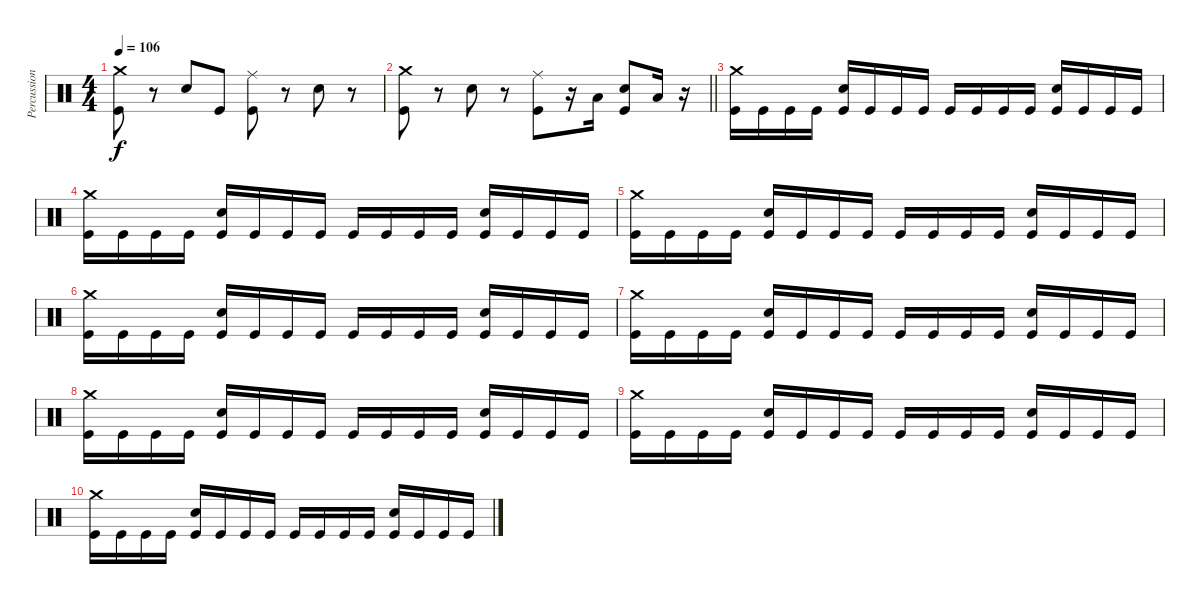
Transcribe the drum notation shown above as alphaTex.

\track ("Percussion" "Percussion") {instrument percussion}
\staff {score}
\articulation defaults
\ts (4 4)
\tempo 106
\clef neutral
\ks c
("Kick (hit)" "Crash medium (hit)").8{dy f} r.8 "Electric Snare (hit)".8 "Kick (hit)".8 ("Kick (hit)" "Ride (middle)").8 r.8 "Electric Snare (hit)".8 r.8 |
\barLineRight lightlight
("Kick (hit)" "Crash medium (hit)").8 r.8 "Electric Snare (hit)".8 r.8 ("Kick (hit)" "Ride (middle)").8 r.16 "Low Tom (hit)".16 ("Kick (hit)" "Electric Snare (hit)").8 "Low Tom (hit)".16 r.16 |
\section ("" "")
("Kick (hit)" "Crash medium (hit)").16 "Kick (hit)".16 "Kick (hit)".16 "Kick (hit)".16 ("Kick (hit)" "Electric Snare (hit)").16 "Kick (hit)".16 "Kick (hit)".16 "Kick (hit)".16 "Kick (hit)".16 "Kick (hit)".16 "Kick (hit)".16 "Kick (hit)".16 ("Kick (hit)" "Electric Snare (hit)").16 "Kick (hit)".16 "Kick (hit)".16 "Kick (hit)".16 |
("Kick (hit)" "Crash medium (hit)").16 "Kick (hit)".16 "Kick (hit)".16 "Kick (hit)".16 ("Kick (hit)" "Electric Snare (hit)").16 "Kick (hit)".16 "Kick (hit)".16 "Kick (hit)".16 "Kick (hit)".16 "Kick (hit)".16 "Kick (hit)".16 "Kick (hit)".16 ("Kick (hit)" "Electric Snare (hit)").16 "Kick (hit)".16 "Kick (hit)".16 "Kick (hit)".16 |
("Kick (hit)" "Crash medium (hit)").16 "Kick (hit)".16 "Kick (hit)".16 "Kick (hit)".16 ("Kick (hit)" "Electric Snare (hit)").16 "Kick (hit)".16 "Kick (hit)".16 "Kick (hit)".16 "Kick (hit)".16 "Kick (hit)".16 "Kick (hit)".16 "Kick (hit)".16 ("Kick (hit)" "Electric Snare (hit)").16 "Kick (hit)".16 "Kick (hit)".16 "Kick (hit)".16 |
("Kick (hit)" "Crash medium (hit)").16 "Kick (hit)".16 "Kick (hit)".16 "Kick (hit)".16 ("Kick (hit)" "Electric Snare (hit)").16 "Kick (hit)".16 "Kick (hit)".16 "Kick (hit)".16 "Kick (hit)".16 "Kick (hit)".16 "Kick (hit)".16 "Kick (hit)".16 ("Kick (hit)" "Electric Snare (hit)").16 "Kick (hit)".16 "Kick (hit)".16 "Kick (hit)".16 |
("Kick (hit)" "Crash medium (hit)").16 "Kick (hit)".16 "Kick (hit)".16 "Kick (hit)".16 ("Kick (hit)" "Electric Snare (hit)").16 "Kick (hit)".16 "Kick (hit)".16 "Kick (hit)".16 "Kick (hit)".16 "Kick (hit)".16 "Kick (hit)".16 "Kick (hit)".16 ("Kick (hit)" "Electric Snare (hit)").16 "Kick (hit)".16 "Kick (hit)".16 "Kick (hit)".16 |
("Kick (hit)" "Crash medium (hit)").16 "Kick (hit)".16 "Kick (hit)".16 "Kick (hit)".16 ("Kick (hit)" "Electric Snare (hit)").16 "Kick (hit)".16 "Kick (hit)".16 "Kick (hit)".16 "Kick (hit)".16 "Kick (hit)".16 "Kick (hit)".16 "Kick (hit)".16 ("Kick (hit)" "Electric Snare (hit)").16 "Kick (hit)".16 "Kick (hit)".16 "Kick (hit)".16 |
("Kick (hit)" "Crash medium (hit)").16 "Kick (hit)".16 "Kick (hit)".16 "Kick (hit)".16 ("Kick (hit)" "Electric Snare (hit)").16 "Kick (hit)".16 "Kick (hit)".16 "Kick (hit)".16 "Kick (hit)".16 "Kick (hit)".16 "Kick (hit)".16 "Kick (hit)".16 ("Kick (hit)" "Electric Snare (hit)").16 "Kick (hit)".16 "Kick (hit)".16 "Kick (hit)".16 |
("Kick (hit)" "Crash medium (hit)").16 "Kick (hit)".16 "Kick (hit)".16 "Kick (hit)".16 ("Kick (hit)" "Electric Snare (hit)").16 "Kick (hit)".16 "Kick (hit)".16 "Kick (hit)".16 "Kick (hit)".16 "Kick (hit)".16 "Kick (hit)".16 "Kick (hit)".16 ("Kick (hit)" "Electric Snare (hit)").16 "Kick (hit)".16 "Kick (hit)".16 "Kick (hit)".16
